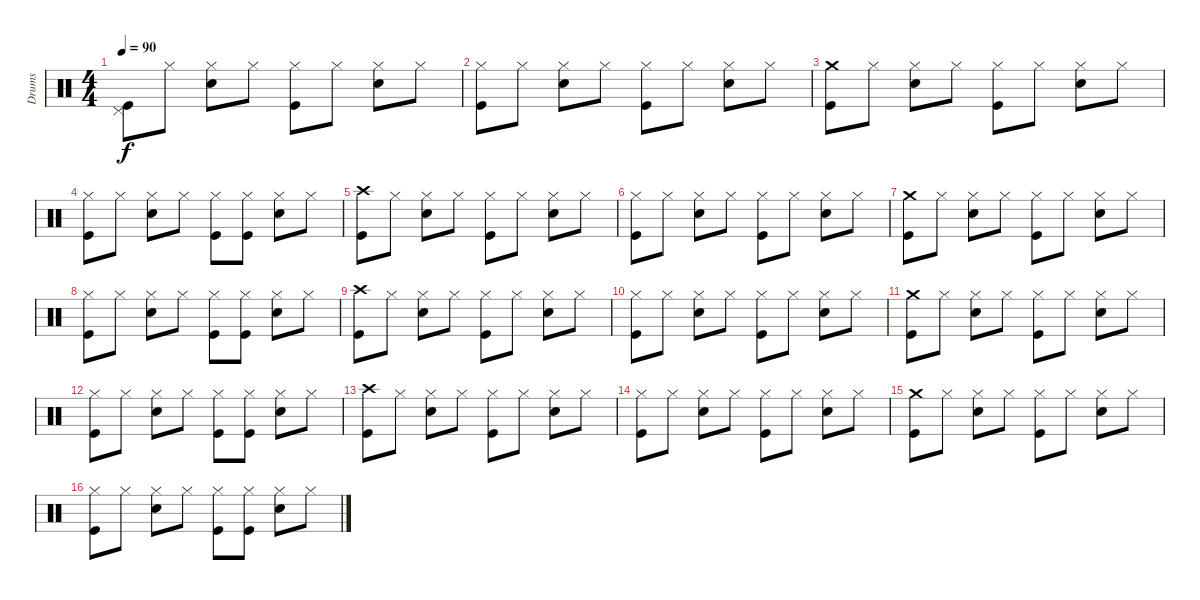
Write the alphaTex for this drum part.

\track ("Drums" "Drums") {instrument percussion}
\staff {score}
\articulation defaults
\ts (4 4)
\tempo 90
\clef neutral
\ks c
("Pedal Hi-Hat (hit)" "Kick (hit)").8{dy f} "Hi-Hat (closed)".8 ("Hi-Hat (closed)" "Electric Snare (hit)").8 "Hi-Hat (closed)".8 ("Hi-Hat (closed)" "Kick (hit)").8 "Hi-Hat (closed)".8 ("Hi-Hat (closed)" "Electric Snare (hit)").8 "Hi-Hat (closed)".8 |
("Hi-Hat (closed)" "Kick (hit)").8 "Hi-Hat (closed)".8 ("Hi-Hat (closed)" "Electric Snare (hit)").8 "Hi-Hat (closed)".8 ("Hi-Hat (closed)" "Kick (hit)").8 "Hi-Hat (closed)".8 ("Hi-Hat (closed)" "Electric Snare (hit)").8 "Hi-Hat (closed)".8 |
("Crash medium (hit)" "Kick (hit)").8 "Hi-Hat (closed)".8 ("Hi-Hat (closed)" "Electric Snare (hit)").8 "Hi-Hat (closed)".8 ("Hi-Hat (closed)" "Kick (hit)").8 "Hi-Hat (closed)".8 ("Hi-Hat (closed)" "Electric Snare (hit)").8 "Hi-Hat (closed)".8 |
("Hi-Hat (closed)" "Kick (hit)").8 "Hi-Hat (closed)".8 ("Hi-Hat (closed)" "Electric Snare (hit)").8 "Hi-Hat (closed)".8 ("Hi-Hat (closed)" "Kick (hit)").8 ("Hi-Hat (closed)" "Kick (hit)").8 ("Hi-Hat (closed)" "Electric Snare (hit)").8 "Hi-Hat (closed)".8 |
("Crash high (hit)" "Kick (hit)").8 "Hi-Hat (closed)".8 ("Hi-Hat (closed)" "Electric Snare (hit)").8 "Hi-Hat (closed)".8 ("Hi-Hat (closed)" "Kick (hit)").8 "Hi-Hat (closed)".8 ("Hi-Hat (closed)" "Electric Snare (hit)").8 "Hi-Hat (closed)".8 |
("Hi-Hat (closed)" "Kick (hit)").8 "Hi-Hat (closed)".8 ("Hi-Hat (closed)" "Electric Snare (hit)").8 "Hi-Hat (closed)".8 ("Hi-Hat (closed)" "Kick (hit)").8 "Hi-Hat (closed)".8 ("Hi-Hat (closed)" "Electric Snare (hit)").8 "Hi-Hat (closed)".8 |
("Crash medium (hit)" "Kick (hit)").8 "Hi-Hat (closed)".8 ("Hi-Hat (closed)" "Electric Snare (hit)").8 "Hi-Hat (closed)".8 ("Hi-Hat (closed)" "Kick (hit)").8 "Hi-Hat (closed)".8 ("Hi-Hat (closed)" "Electric Snare (hit)").8 "Hi-Hat (closed)".8 |
("Hi-Hat (closed)" "Kick (hit)").8 "Hi-Hat (closed)".8 ("Hi-Hat (closed)" "Electric Snare (hit)").8 "Hi-Hat (closed)".8 ("Hi-Hat (closed)" "Kick (hit)").8 ("Hi-Hat (closed)" "Kick (hit)").8 ("Hi-Hat (closed)" "Electric Snare (hit)").8 "Hi-Hat (closed)".8 |
("Crash high (hit)" "Kick (hit)").8 "Hi-Hat (closed)".8 ("Hi-Hat (closed)" "Electric Snare (hit)").8 "Hi-Hat (closed)".8 ("Hi-Hat (closed)" "Kick (hit)").8 "Hi-Hat (closed)".8 ("Hi-Hat (closed)" "Electric Snare (hit)").8 "Hi-Hat (closed)".8 |
("Hi-Hat (closed)" "Kick (hit)").8 "Hi-Hat (closed)".8 ("Hi-Hat (closed)" "Electric Snare (hit)").8 "Hi-Hat (closed)".8 ("Hi-Hat (closed)" "Kick (hit)").8 "Hi-Hat (closed)".8 ("Hi-Hat (closed)" "Electric Snare (hit)").8 "Hi-Hat (closed)".8 |
("Crash medium (hit)" "Kick (hit)").8 "Hi-Hat (closed)".8 ("Hi-Hat (closed)" "Electric Snare (hit)").8 "Hi-Hat (closed)".8 ("Hi-Hat (closed)" "Kick (hit)").8 "Hi-Hat (closed)".8 ("Hi-Hat (closed)" "Electric Snare (hit)").8 "Hi-Hat (closed)".8 |
("Hi-Hat (closed)" "Kick (hit)").8 "Hi-Hat (closed)".8 ("Hi-Hat (closed)" "Electric Snare (hit)").8 "Hi-Hat (closed)".8 ("Hi-Hat (closed)" "Kick (hit)").8 ("Hi-Hat (closed)" "Kick (hit)").8 ("Hi-Hat (closed)" "Electric Snare (hit)").8 "Hi-Hat (closed)".8 |
("Crash high (hit)" "Kick (hit)").8 "Hi-Hat (closed)".8 ("Hi-Hat (closed)" "Electric Snare (hit)").8 "Hi-Hat (closed)".8 ("Hi-Hat (closed)" "Kick (hit)").8 "Hi-Hat (closed)".8 ("Hi-Hat (closed)" "Electric Snare (hit)").8 "Hi-Hat (closed)".8 |
("Hi-Hat (closed)" "Kick (hit)").8 "Hi-Hat (closed)".8 ("Hi-Hat (closed)" "Electric Snare (hit)").8 "Hi-Hat (closed)".8 ("Hi-Hat (closed)" "Kick (hit)").8 "Hi-Hat (closed)".8 ("Hi-Hat (closed)" "Electric Snare (hit)").8 "Hi-Hat (closed)".8 |
("Crash medium (hit)" "Kick (hit)").8 "Hi-Hat (closed)".8 ("Hi-Hat (closed)" "Electric Snare (hit)").8 "Hi-Hat (closed)".8 ("Hi-Hat (closed)" "Kick (hit)").8 "Hi-Hat (closed)".8 ("Hi-Hat (closed)" "Electric Snare (hit)").8 "Hi-Hat (closed)".8 |
("Hi-Hat (closed)" "Kick (hit)").8 "Hi-Hat (closed)".8 ("Hi-Hat (closed)" "Electric Snare (hit)").8 "Hi-Hat (closed)".8 ("Hi-Hat (closed)" "Kick (hit)").8 ("Hi-Hat (closed)" "Kick (hit)").8 ("Hi-Hat (closed)" "Electric Snare (hit)").8 "Hi-Hat (closed)".8
